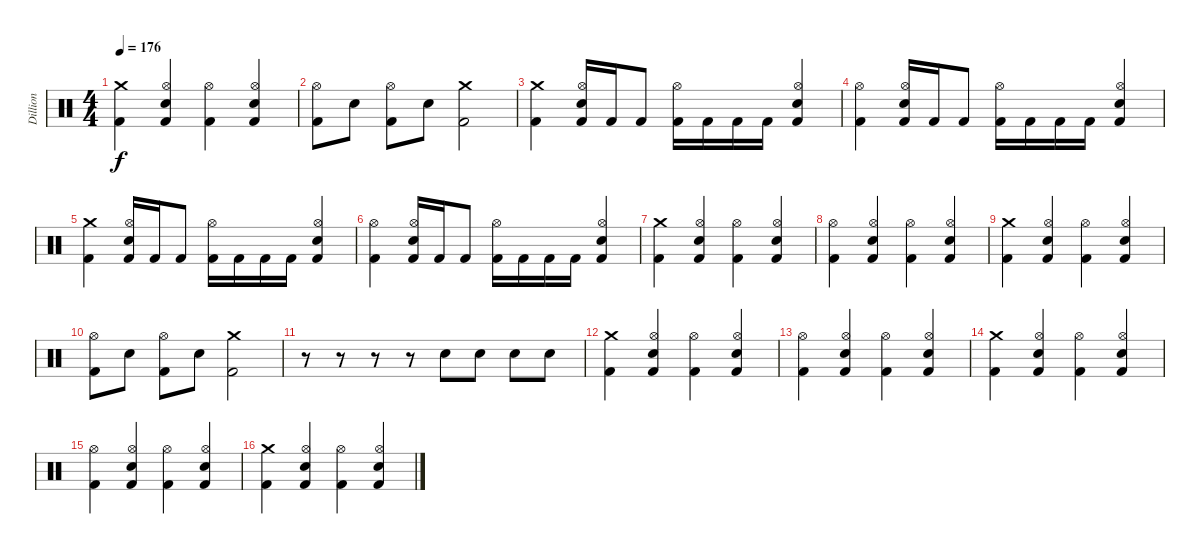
\track ("Dillion" "Dillion") {instrument percussion}
\staff {score}
\articulation defaults
\ts (4 4)
\tempo 176
\clef neutral
\ks c
("Crash medium (hit)" "Kick (hit) 2").4{dy f} ("Hi-Hat (open)" "Electric Snare (hit)" "Kick (hit) 2").4 ("Hi-Hat (open)" "Kick (hit) 2").4 ("Hi-Hat (open)" "Electric Snare (hit)" "Kick (hit) 2").4 |
("Hi-Hat (open)" "Kick (hit) 2").8 "Electric Snare (hit)".8 ("Hi-Hat (open)" "Kick (hit) 2").8 "Electric Snare (hit)".8 ("Crash medium (hit)" "Kick (hit) 2").2 |
("Crash medium (hit)" "Kick (hit) 2").4 ("Hi-Hat (open)" "Electric Snare (hit)" "Kick (hit) 2").16 "Kick (hit) 2".16 "Kick (hit) 2".8 ("Hi-Hat (open)" "Kick (hit) 2").16 "Kick (hit) 2".16 "Kick (hit) 2".16 "Kick (hit) 2".16 ("Hi-Hat (open)" "Electric Snare (hit)" "Kick (hit) 2").4 |
("Hi-Hat (open)" "Kick (hit) 2").4 ("Hi-Hat (open)" "Electric Snare (hit)" "Kick (hit) 2").16 "Kick (hit) 2".16 "Kick (hit) 2".8 ("Hi-Hat (open)" "Kick (hit) 2").16 "Kick (hit) 2".16 "Kick (hit) 2".16 "Kick (hit) 2".16 ("Hi-Hat (open)" "Electric Snare (hit)" "Kick (hit) 2").4 |
("Crash medium (hit)" "Kick (hit) 2").4 ("Hi-Hat (open)" "Electric Snare (hit)" "Kick (hit) 2").16 "Kick (hit) 2".16 "Kick (hit) 2".8 ("Hi-Hat (open)" "Kick (hit) 2").16 "Kick (hit) 2".16 "Kick (hit) 2".16 "Kick (hit) 2".16 ("Hi-Hat (open)" "Electric Snare (hit)" "Kick (hit) 2").4 |
("Hi-Hat (open)" "Kick (hit) 2").4 ("Hi-Hat (open)" "Electric Snare (hit)" "Kick (hit) 2").16 "Kick (hit) 2".16 "Kick (hit) 2".8 ("Hi-Hat (open)" "Kick (hit) 2").16 "Kick (hit) 2".16 "Kick (hit) 2".16 "Kick (hit) 2".16 ("Hi-Hat (open)" "Electric Snare (hit)" "Kick (hit) 2").4 |
("Crash medium (hit)" "Kick (hit) 2").4 ("Hi-Hat (open)" "Electric Snare (hit)" "Kick (hit) 2").4 ("Hi-Hat (open)" "Kick (hit) 2").4 ("Hi-Hat (open)" "Electric Snare (hit)" "Kick (hit) 2").4 |
("Hi-Hat (open)" "Kick (hit) 2").4 ("Hi-Hat (open)" "Electric Snare (hit)" "Kick (hit) 2").4 ("Hi-Hat (open)" "Kick (hit) 2").4 ("Hi-Hat (open)" "Electric Snare (hit)" "Kick (hit) 2").4 |
("Crash medium (hit)" "Kick (hit) 2").4 ("Hi-Hat (open)" "Electric Snare (hit)" "Kick (hit) 2").4 ("Hi-Hat (open)" "Kick (hit) 2").4 ("Hi-Hat (open)" "Electric Snare (hit)" "Kick (hit) 2").4 |
("Hi-Hat (open)" "Kick (hit) 2").8 "Electric Snare (hit)".8 ("Hi-Hat (open)" "Kick (hit) 2").8 "Electric Snare (hit)".8 ("Crash medium (hit)" "Kick (hit) 2").2 |
r.8 r.8 r.8 r.8 "Electric Snare (hit)".8 "Electric Snare (hit)".8 "Electric Snare (hit)".8 "Electric Snare (hit)".8 |
("Crash medium (hit)" "Kick (hit) 2").4 ("Hi-Hat (open)" "Electric Snare (hit)" "Kick (hit) 2").4 ("Hi-Hat (open)" "Kick (hit) 2").4 ("Hi-Hat (open)" "Electric Snare (hit)" "Kick (hit) 2").4 |
("Hi-Hat (open)" "Kick (hit) 2").4 ("Hi-Hat (open)" "Electric Snare (hit)" "Kick (hit) 2").4 ("Hi-Hat (open)" "Kick (hit) 2").4 ("Hi-Hat (open)" "Electric Snare (hit)" "Kick (hit) 2").4 |
("Crash medium (hit)" "Kick (hit) 2").4 ("Hi-Hat (open)" "Electric Snare (hit)" "Kick (hit) 2").4 ("Hi-Hat (open)" "Kick (hit) 2").4 ("Hi-Hat (open)" "Electric Snare (hit)" "Kick (hit) 2").4 |
("Hi-Hat (open)" "Kick (hit) 2").4 ("Hi-Hat (open)" "Electric Snare (hit)" "Kick (hit) 2").4 ("Hi-Hat (open)" "Kick (hit) 2").4 ("Hi-Hat (open)" "Electric Snare (hit)" "Kick (hit) 2").4 |
("Crash medium (hit)" "Kick (hit) 2").4 ("Hi-Hat (open)" "Electric Snare (hit)" "Kick (hit) 2").4 ("Hi-Hat (open)" "Kick (hit) 2").4 ("Hi-Hat (open)" "Electric Snare (hit)" "Kick (hit) 2").4
